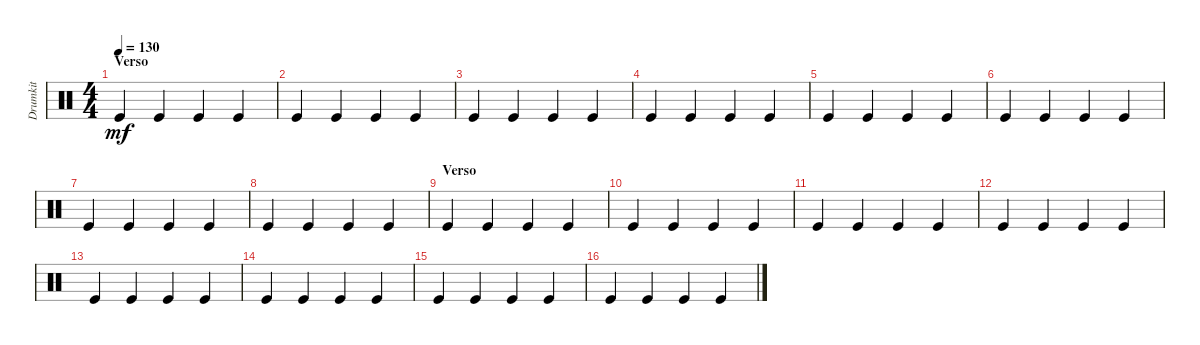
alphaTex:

\track ("Drumkit" "Drumkit") {instrument percussion}
\staff {score}
\articulation defaults
\ts (4 4)
\section ("" "Verso")
\tempo 130
\clef neutral
\ks c "Kick (hit)".4{dy mf} "Kick (hit)".4 "Kick (hit)".4 "Kick (hit)".4
|
"Kick (hit)".4 "Kick (hit)".4 "Kick (hit)".4 "Kick (hit)".4 |
"Kick (hit)".4 "Kick (hit)".4 "Kick (hit)".4 "Kick (hit)".4 |
"Kick (hit)".4 "Kick (hit)".4 "Kick (hit)".4 "Kick (hit)".4 |
"Kick (hit)".4 "Kick (hit)".4 "Kick (hit)".4 "Kick (hit)".4 |
"Kick (hit)".4 "Kick (hit)".4 "Kick (hit)".4 "Kick (hit)".4 |
"Kick (hit)".4 "Kick (hit)".4 "Kick (hit)".4 "Kick (hit)".4 |
"Kick (hit)".4 "Kick (hit)".4 "Kick (hit)".4 "Kick (hit)".4 |
\section ("" "Verso")
"Kick (hit)".4 "Kick (hit)".4 "Kick (hit)".4 "Kick (hit)".4 |
"Kick (hit)".4 "Kick (hit)".4 "Kick (hit)".4 "Kick (hit)".4 |
"Kick (hit)".4 "Kick (hit)".4 "Kick (hit)".4 "Kick (hit)".4 |
"Kick (hit)".4 "Kick (hit)".4 "Kick (hit)".4 "Kick (hit)".4 |
"Kick (hit)".4 "Kick (hit)".4 "Kick (hit)".4 "Kick (hit)".4 |
"Kick (hit)".4 "Kick (hit)".4 "Kick (hit)".4 "Kick (hit)".4 |
"Kick (hit)".4 "Kick (hit)".4 "Kick (hit)".4 "Kick (hit)".4 |
"Kick (hit)".4 "Kick (hit)".4 "Kick (hit)".4 "Kick (hit)".4
